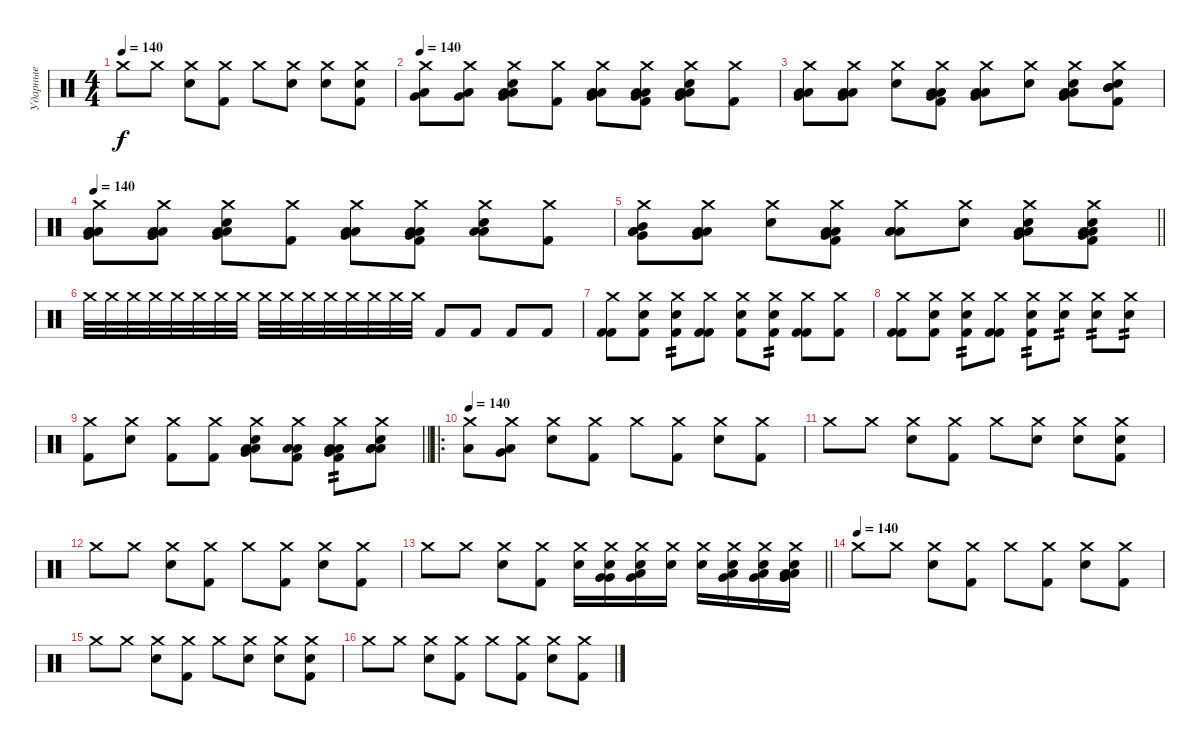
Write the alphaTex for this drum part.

\track ("Ударные" "Ударные") {instrument percussion}
\staff {score}
\articulation defaults
\ts (4 4)
\tempo 140
\clef neutral
\ks c "Crash medium (hit)".8{dy f} "Crash medium (hit)".8
("Crash medium (hit)" "Snare (hit) 2").8 ("Crash medium (hit)" "Kick (hit) 2").8 "Crash medium (hit)".8 ("Crash medium (hit)" "Snare (hit) 2").8 ("Crash medium (hit)" "Snare (hit) 2").8 ("Crash medium (hit)" "Kick (hit) 2" "Snare (hit) 2").8 |
\tempo 140
("Very Low Tom (hit)" "Low Tom (hit)" "Crash medium (hit)").8 ("Crash medium (hit)" "Very Low Tom (hit)" "Low Floor Tom (hit)").8 ("Crash medium (hit)" "Snare (hit) 2" "Low Floor Tom (hit)" "Very Low Tom (hit)" "Low Tom (hit)").8 ("Crash medium (hit)" "Kick (hit) 2").8 ("Crash medium (hit)" "Low Floor Tom (hit)" "Very Low Tom (hit)" "Low Tom (hit)").8 ("Crash medium (hit)" "Kick (hit) 2" "Low Floor Tom (hit)" "Very Low Tom (hit)" "Low Tom (hit)").8 ("Crash medium (hit)" "Snare (hit) 2" "Low Tom (hit)" "Very Low Tom (hit)" "Low Floor Tom (hit)").8 ("Crash medium (hit)" "Kick (hit) 2").8 |
("Crash medium (hit)" "Low Floor Tom (hit)" "Very Low Tom (hit)" "Low Tom (hit)").8 ("Crash medium (hit)" "Low Floor Tom (hit)" "Very Low Tom (hit)" "Low Tom (hit)").8 ("Crash medium (hit)" "Snare (hit) 2").8 ("Crash medium (hit)" "Kick (hit) 2" "Low Floor Tom (hit)" "Very Low Tom (hit)" "Low Tom (hit)").8 ("Crash medium (hit)" "Low Floor Tom (hit)" "Very Low Tom (hit)" "Low Tom (hit)").8 ("Crash medium (hit)" "Snare (hit) 2").8 ("Crash medium (hit)" "Snare (hit) 2" "Low Floor Tom (hit)" "Very Low Tom (hit)" "Low Tom (hit)").8 ("Crash medium (hit)" "Kick (hit) 2" "Snare (hit) 2" "Mid Tom (hit)" "Mid Tom (hit)").8 |
\tempo 140
("Crash medium (hit)" "Low Tom (hit)" "Low Floor Tom (hit)" "Very Low Tom (hit)" "Low Tom (hit)").8 ("Crash medium (hit)" "Very Low Tom (hit)" "Low Floor Tom (hit)" "Low Floor Tom (hit)" "Very Low Tom (hit)" "Low Tom (hit)").8 ("Crash medium (hit)" "Snare (hit) 2" "Low Floor Tom (hit)" "Very Low Tom (hit)" "Low Tom (hit)").8 ("Crash medium (hit)" "Kick (hit) 2").8 ("Crash medium (hit)" "Low Floor Tom (hit)" "Very Low Tom (hit)" "Low Tom (hit)").8 ("Crash medium (hit)" "Kick (hit) 2" "Low Floor Tom (hit)" "Very Low Tom (hit)" "Low Tom (hit)").8 ("Crash medium (hit)" "Snare (hit) 2" "Low Floor Tom (hit)" "Low Tom (hit)").8 ("Crash medium (hit)" "Kick (hit) 2").8 |
\barLineRight lightlight
("Crash medium (hit)" "Low Floor Tom (hit)" "Mid Tom (hit)" "Low Floor Tom (hit)" "Very Low Tom (hit)").8 ("Crash medium (hit)" "Low Floor Tom (hit)" "Very Low Tom (hit)" "Low Tom (hit)").8 ("Crash medium (hit)" "Snare (hit) 2").8 ("Crash medium (hit)" "Kick (hit) 2" "Low Floor Tom (hit)" "Very Low Tom (hit)" "Low Tom (hit)").8 ("Crash medium (hit)" "Low Floor Tom (hit)" "Low Floor Tom (hit)" "Low Tom (hit)").8 ("Crash medium (hit)" "Snare (hit) 2").8 ("Crash medium (hit)" "Snare (hit) 2" "Low Floor Tom (hit)" "Very Low Tom (hit)" "Low Tom (hit)").8 ("Crash medium (hit)" "Kick (hit) 2" "Snare (hit) 2" "Low Floor Tom (hit)" "Very Low Tom (hit)" "Low Tom (hit)").8 |
"Crash medium (hit)".32 "Crash medium (hit)".32 "Crash medium (hit)".32 "Crash medium (hit)".32 "Crash medium (hit)".32 "Crash medium (hit)".32 "Crash medium (hit)".32 "Crash medium (hit)".32 "Crash medium (hit)".32 "Crash medium (hit)".32 "Crash medium (hit)".32 "Crash medium (hit)".32 "Crash medium (hit)".32 "Crash medium (hit)".32 "Crash medium (hit)".32 "Crash medium (hit)".32 "Kick (hit) 2".8 "Kick (hit) 2".8 "Kick (hit) 2".8 "Kick (hit) 2".8 |
("Kick (hit) 2" "Kick (hit) 2" "Crash medium (hit)").8 ("Kick (hit) 2" "Snare (hit) 2" "Crash medium (hit)").8 ("Kick (hit) 2" "Snare (hit) 2" "Crash medium (hit)").8{tp 2} ("Kick (hit) 2" "Kick (hit) 2" "Crash medium (hit)").8 ("Kick (hit) 2" "Snare (hit) 2" "Crash medium (hit)").8 ("Kick (hit) 2" "Snare (hit) 2" "Crash medium (hit)").8{tp 2} ("Kick (hit) 2" "Kick (hit) 2" "Crash medium (hit)").8 ("Kick (hit) 2" "Crash medium (hit)").8 |
("Kick (hit) 2" "Kick (hit) 2" "Crash medium (hit)").8 ("Kick (hit) 2" "Snare (hit) 2" "Crash medium (hit)").8 ("Kick (hit) 2" "Snare (hit) 2" "Crash medium (hit)").8{tp 2} ("Kick (hit) 2" "Kick (hit) 2" "Crash medium (hit)").8 ("Kick (hit) 2" "Snare (hit) 2" "Crash medium (hit)").8{tp 2} ("Snare (hit) 2" "Crash medium (hit)").8{tp 2} ("Snare (hit) 2" "Crash medium (hit)").8{tp 2} ("Snare (hit) 2" "Crash medium (hit)").8{tp 2} |
\barLineRight lightlight
("Kick (hit) 2" "Crash medium (hit)").8 ("Snare (hit) 2" "Crash medium (hit)").8 ("Kick (hit) 2" "Crash medium (hit)").8 ("Kick (hit) 2" "Crash medium (hit)").8 ("Snare (hit) 2" "Crash medium (hit)" "Low Floor Tom (hit)" "Very Low Tom (hit)" "Low Tom (hit)").8 ("Kick (hit) 2" "Crash medium (hit)" "Low Floor Tom (hit)" "Low Tom (hit)").8 ("Kick (hit) 2" "Crash medium (hit)" "Low Floor Tom (hit)" "Very Low Tom (hit)" "Low Tom (hit)").8{tp 2} ("Snare (hit) 2" "Crash medium (hit)" "Low Floor Tom (hit)" "Low Tom (hit)" "Low Tom (hit)").8 |
\ro
\tempo 140
("Crash medium (hit)" "Low Tom (hit)").8 ("Crash medium (hit)" "Very Low Tom (hit)" "Low Floor Tom (hit)").8 ("Crash medium (hit)" "Snare (hit) 2").8 ("Crash medium (hit)" "Kick (hit) 2").8 "Crash medium (hit)".8 ("Crash medium (hit)" "Kick (hit) 2").8 ("Crash medium (hit)" "Snare (hit) 2").8 ("Crash medium (hit)" "Kick (hit) 2").8 |
"Crash medium (hit)".8 "Crash medium (hit)".8 ("Crash medium (hit)" "Snare (hit) 2").8 ("Crash medium (hit)" "Kick (hit) 2").8 "Crash medium (hit)".8 ("Crash medium (hit)" "Snare (hit) 2").8 ("Crash medium (hit)" "Snare (hit) 2").8 ("Crash medium (hit)" "Kick (hit) 2" "Snare (hit) 2").8 |
"Crash medium (hit)".8 "Crash medium (hit)".8 ("Crash medium (hit)" "Snare (hit) 2").8 ("Crash medium (hit)" "Kick (hit) 2").8 "Crash medium (hit)".8 ("Crash medium (hit)" "Kick (hit) 2").8 ("Crash medium (hit)" "Snare (hit) 2").8 ("Crash medium (hit)" "Kick (hit) 2").8 |
\barLineRight lightlight "Crash medium (hit)".8 "Crash medium (hit)".8
("Crash medium (hit)" "Snare (hit) 2").8 ("Crash medium (hit)" "Kick (hit) 2").8 ("Crash medium (hit)" "Snare (hit) 2").16 ("Crash medium (hit)" "Snare (hit) 2" "Very Low Tom (hit)" "Very Low Tom (hit)").16 ("Crash medium (hit)" "Snare (hit) 2" "Very Low Tom (hit)" "Low Tom (hit)").16 ("Crash medium (hit)" "Snare (hit) 2").16 ("Crash medium (hit)" "Snare (hit) 2").16 ("Crash medium (hit)" "Snare (hit) 2" "Very Low Tom (hit)" "Low Tom (hit)").16 ("Crash medium (hit)" "Snare (hit) 2" "Very Low Tom (hit)" "Low Tom (hit)").16 ("Crash medium (hit)" "Snare (hit) 2" "Very Low Tom (hit)" "Low Tom (hit)" "Low Floor Tom (hit)").16 |
\tempo (140)
"Crash medium (hit)".8 "Crash medium (hit)".8 ("Crash medium (hit)" "Snare (hit) 2").8 ("Crash medium (hit)" "Kick (hit) 2").8 "Crash medium (hit)".8 ("Crash medium (hit)" "Kick (hit) 2").8 ("Crash medium (hit)" "Snare (hit) 2").8 ("Crash medium (hit)" "Kick (hit) 2").8 |
"Crash medium (hit)".8 "Crash medium (hit)".8 ("Crash medium (hit)" "Snare (hit) 2").8 ("Crash medium (hit)" "Kick (hit) 2").8 "Crash medium (hit)".8 ("Crash medium (hit)" "Snare (hit) 2").8 ("Crash medium (hit)" "Snare (hit) 2").8 ("Crash medium (hit)" "Kick (hit) 2" "Snare (hit) 2").8 |
"Crash medium (hit)".8 "Crash medium (hit)".8 ("Crash medium (hit)" "Snare (hit) 2").8 ("Crash medium (hit)" "Kick (hit) 2").8 "Crash medium (hit)".8 ("Crash medium (hit)" "Kick (hit) 2").8 ("Crash medium (hit)" "Snare (hit) 2").8 ("Crash medium (hit)" "Kick (hit) 2").8
